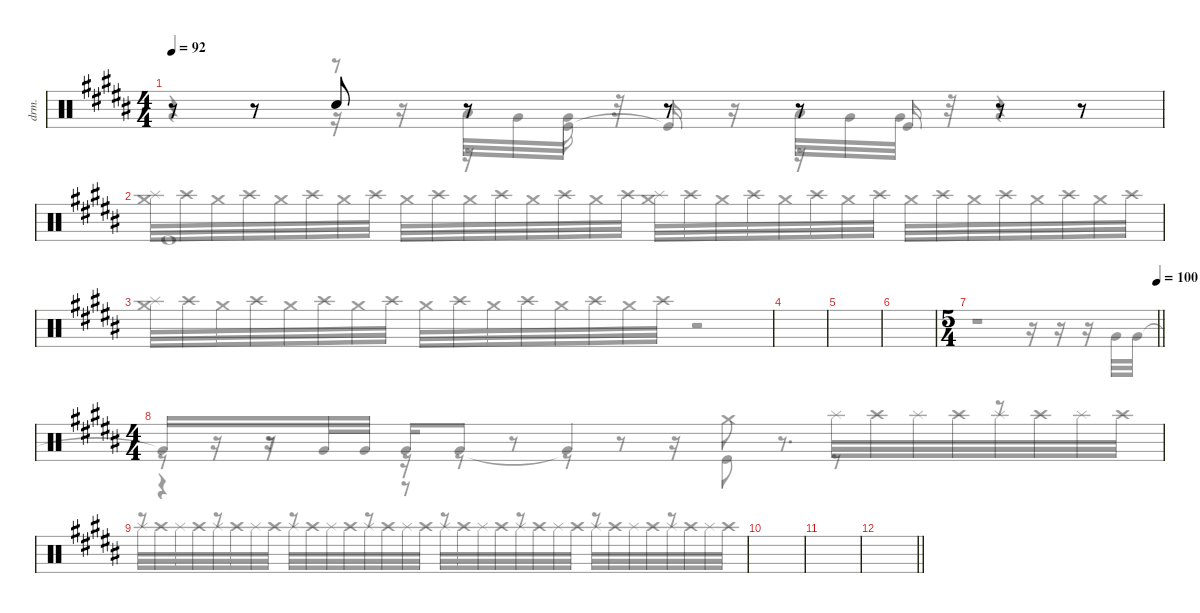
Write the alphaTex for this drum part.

\hideDynamics
\bracketExtendMode nobrackets
\otherSystemsTrackNameOrientation horizontal
\track ("Drumkit" "drm.") {instrument percussion}
\staff {score}
\articulation defaults
\voice
\ts (4 4)
\tempo 92
\clef neutral
\ks b
r.8{dy ff beam Up} r.8{beam Up} "Snare (hit) 2"{acc bb}.8{beam Up} r.8{beam Up} r.8{beam Up} r.8{beam Up} r.8{beam Up} r.8{beam Up} |
|
|
|
|
|
\ts (5 4)
\beaming (8 6 4)
\tempo (100 1)
\barLineRight lightlight
|
\ts (4 4)
\beaming (8 2 2 2 2)
|
|
|
|
\barLineRight lightlight
|
|
|
|
\voice
\clef neutral
\ottava regular
\simile none
\ks b
r.4{dy ff beam Down} r.8{beam Down} "Low Tom (hit)"{acc bb}.32{beam Down} "Very Low Tom (hit)"{acc bb}.32{beam Down} "Very Low Tom (hit)"{acc bb}.32{beam Down} r.32{beam Down} r.8{beam Down} "Low Tom (hit)"{acc bb}.32{beam Down} "Very Low Tom (hit)"{acc bb}.32{beam Down} "Very Low Tom (hit)"{acc bb}.32{beam Down} r.32{beam Down} r.4{beam Down} |
|
|
|
|
|
\barLineRight lightlight
r.1{beam Down} r.16{beam Down} r.16{beam Down} r.16{beam Down} "Very Low Tom (hit)"{acc bb}.32{dy mf beam Up} "Very Low Tom (hit)"{acc bb}.32{beam Up} |
"Very Low Tom (hit)"{t acc bb}.16{beam Up} r.16{beam Up} r.16{beam Up} "Very Low Tom (hit)"{acc bb}.32{beam Up} "Very Low Tom (hit)"{acc bb}.32{beam Up} "Very Low Tom (hit)"{acc bb}.16{beam Up} "Very Low Tom (hit)"{acc bb}.8{beam Up} "Very Low Tom (hit)"{t acc bb}.4{beam Up} r.8{d beam Up} r.8{beam Up} |
r.8{beam Up} r.8{beam Up} r.8{beam Up} r.8{beam Up} r.8{beam Up} r.8{beam Up} r.8{beam Up} r.8{beam Up} |
|
|
\barLineRight lightlight
|
|
|
|
\voice
\clef neutral
\ottava regular
\simile none
\ks b
r.4{dy ff beam Down} r.16{beam Down} r.16{beam Down} r.16{beam Down} "Kick (hit)"{acc bb}.16{beam Up} "Kick (hit)"{t acc bb}.16{beam Up beam split} r.16{beam Up beam split} r.16{beam Up beam split} "Kick (hit)"{acc bb}.16{beam Up} r.4{beam Up} |
"Kick (hit)"{acc bb}.1{beam Up} |
|
|
|
|
\barLineRight lightlight
|
r.8{beam Down} r.8{beam Down} r.16{beam Down} r.8{beam Down} r.8{beam Down} r.16{beam Down} "Kick (hit)"{acc bb}.8{dy mp beam Down} r.8{beam Down} r.8{beam Down} |
r.8{beam Down} r.8{beam Down} r.8{beam Down} r.8{beam Down} r.8{beam Down} r.8{beam Down} r.8{beam Down} r.8{beam Down} |
|
|
\barLineRight lightlight
|
|
|
|
\voice
\clef neutral
\ottava regular
\simile none
\ks b
|
("Crash medium (hit)"{acc bb} "Splash (hit)"{acc bb}).32{beam Down} "Crash high (hit)"{acc bb}.32{beam Down} "Crash medium (hit)"{acc bb}.32{beam Down} "Crash high (hit)"{acc bb}.32{beam Down} "Crash medium (hit)"{acc bb}.32{beam Down} "Crash high (hit)"{acc bb}.32{beam Down} "Crash medium (hit)"{acc bb}.32{beam Down} "Crash high (hit)"{acc bb}.32{beam Down} "Crash medium (hit)"{acc bb}.32{beam Down} "Crash high (hit)"{acc bb}.32{beam Down} "Crash medium (hit)"{acc bb}.32{beam Down} "Crash high (hit)"{acc bb}.32{beam Down} "Crash medium (hit)"{acc bb}.32{beam Down} "Crash high (hit)"{acc bb}.32{beam Down} "Crash medium (hit)"{acc bb}.32{beam Down} "Crash high (hit)"{acc bb}.32{beam Down} ("Crash medium (hit)"{acc bb} "Splash (hit)"{acc bb}).32{dy p beam Down} "Crash high (hit)"{acc bb}.32{beam Down} "Crash medium (hit)"{acc bb}.32{beam Down} "Crash high (hit)"{acc bb}.32{beam Down} "Crash medium (hit)"{acc bb}.32{beam Down} "Crash high (hit)"{acc bb}.32{beam Down} "Crash medium (hit)"{acc bb}.32{beam Down} "Crash high (hit)"{acc bb}.32{beam Down} "Crash medium (hit)"{acc bb}.32{beam Down} "Crash high (hit)"{acc bb}.32{beam Down} "Crash medium (hit)"{acc bb}.32{beam Down} "Crash high (hit)"{acc bb}.32{beam Down} "Crash medium (hit)"{acc bb}.32{beam Down} "Crash high (hit)"{acc bb}.32{beam Down} "Crash medium (hit)"{acc bb}.32{beam Down} "Crash high (hit)"{acc bb}.32{beam Down} |
("Crash medium (hit)"{acc bb} "Splash (hit)"{acc bb}).32{dy pp beam Down} "Crash high (hit)"{acc bb}.32{beam Down} "Crash medium (hit)"{acc bb}.32{beam Down} "Crash high (hit)"{acc bb}.32{beam Down} "Crash medium (hit)"{acc bb}.32{beam Down} "Crash high (hit)"{acc bb}.32{beam Down} "Crash medium (hit)"{acc bb}.32{beam Down} "Crash high (hit)"{acc bb}.32{beam Down} "Crash medium (hit)"{acc bb}.32{beam Down} "Crash high (hit)"{acc bb}.32{beam Down} "Crash medium (hit)"{acc bb}.32{beam Down} "Crash high (hit)"{acc bb}.32{beam Down} "Crash medium (hit)"{acc bb}.32{beam Down} "Crash high (hit)"{acc bb}.32{beam Down} "Crash medium (hit)"{acc bb}.32{beam Down} "Crash high (hit)"{acc bb}.32{beam Down} r.2{beam Down} |
|
|
|
\barLineRight lightlight
|
r.4{beam Down} r.8{beam Down} r.8{beam Down} r.8{beam Down} "Crash medium (hit)"{acc bb}.8{dy mf beam Down} "Splash (hit)"{acc bb}.32{dy pp beam Down} "Crash high (hit)"{acc bb}.32{beam Down} "Splash (hit)"{acc bb}.32{beam Down} "Crash high (hit)"{acc bb}.32{beam Down} "Splash (hit)"{acc bb}.32{beam Down} "Crash high (hit)"{acc bb}.32{beam Down} "Splash (hit)"{acc bb}.32{beam Down} "Crash high (hit)"{acc bb}.32{beam Down} |
"Splash (hit)"{acc bb}.32{beam Down} "Crash high (hit)"{acc bb}.32{beam Down} "Splash (hit)"{acc bb}.32{beam Down} "Crash high (hit)"{acc bb}.32{beam Down} "Splash (hit)"{acc bb}.32{beam Down} "Crash high (hit)"{acc bb}.32{beam Down} "Splash (hit)"{acc bb}.32{beam Down} "Crash high (hit)"{acc bb}.32{beam Down} "Splash (hit)"{acc bb}.32{beam Down} "Crash high (hit)"{acc bb}.32{beam Down} "Splash (hit)"{acc bb}.32{beam Down} "Crash high (hit)"{acc bb}.32{beam Down} "Splash (hit)"{acc bb}.32{beam Down} "Crash high (hit)"{acc bb}.32{beam Down} "Splash (hit)"{acc bb}.32{beam Down} "Crash high (hit)"{acc bb}.32{beam Down} "Splash (hit)"{acc bb}.32{beam Down} "Crash high (hit)"{acc bb}.32{beam Down} "Splash (hit)"{acc bb}.32{beam Down} "Crash high (hit)"{acc bb}.32{beam Down} "Splash (hit)"{acc bb}.32{beam Down} "Crash high (hit)"{acc bb}.32{beam Down} "Splash (hit)"{acc bb}.32{beam Down} "Crash high (hit)"{acc bb}.32{beam Down} "Splash (hit)"{acc bb}.32{beam Down} "Crash high (hit)"{acc bb}.32{beam Down} "Splash (hit)"{acc bb}.32{beam Down} "Crash high (hit)"{acc bb}.32{beam Down} "Splash (hit)"{acc bb}.32{beam Down} "Crash high (hit)"{acc bb}.32{beam Down} "Splash (hit)"{acc bb}.32{beam Down} "Crash high (hit)"{acc bb}.32{beam Down} |
|
|
\barLineRight lightlight
|
|
|
|
